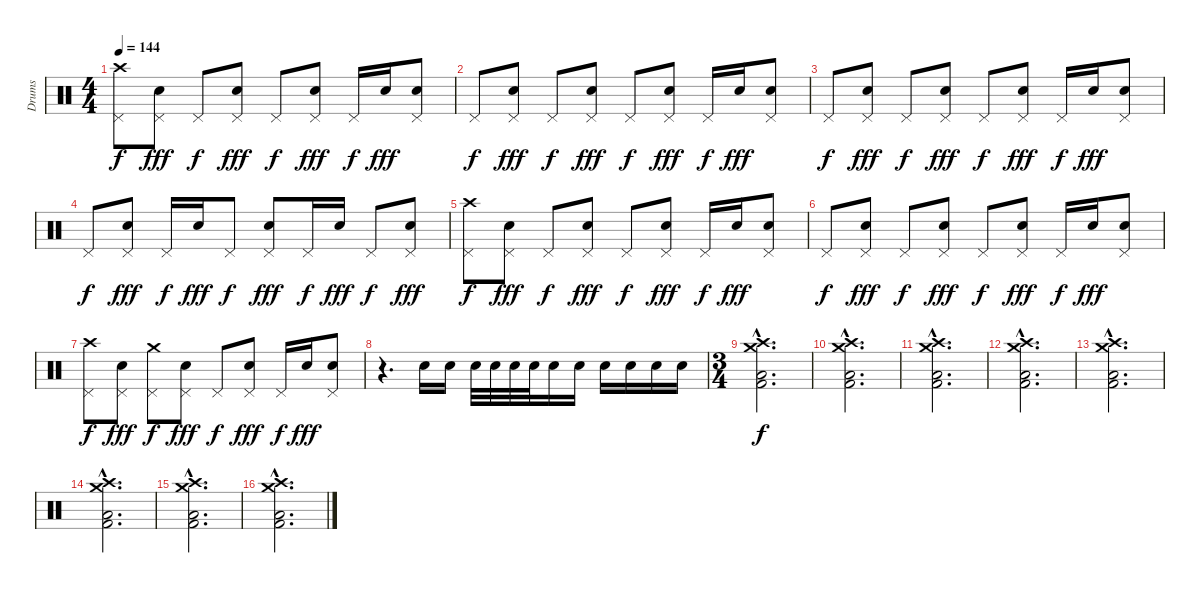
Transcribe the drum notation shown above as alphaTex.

\track ("Drums" "Drums") {instrument percussion}
\staff {score}
\articulation defaults
\ts (4 4)
\tempo 144
\clef neutral
\ks c
("Pedal Hi-Hat (hit)" "Crash high (hit)").8{dy f} ("Pedal Hi-Hat (hit)" "Electric Snare (hit)").8{dy fff} "Pedal Hi-Hat (hit)".8{dy f} ("Pedal Hi-Hat (hit)" "Electric Snare (hit)").8{dy fff} "Pedal Hi-Hat (hit)".8{dy f} ("Pedal Hi-Hat (hit)" "Electric Snare (hit)").8{dy fff} "Pedal Hi-Hat (hit)".16{dy f} "Electric Snare (hit)".16{dy fff} ("Pedal Hi-Hat (hit)" "Electric Snare (hit)").8 |
"Pedal Hi-Hat (hit)".8{dy f} ("Pedal Hi-Hat (hit)" "Electric Snare (hit)").8{dy fff} "Pedal Hi-Hat (hit)".8{dy f} ("Pedal Hi-Hat (hit)" "Electric Snare (hit)").8{dy fff} "Pedal Hi-Hat (hit)".8{dy f} ("Pedal Hi-Hat (hit)" "Electric Snare (hit)").8{dy fff} "Pedal Hi-Hat (hit)".16{dy f} "Electric Snare (hit)".16{dy fff} ("Pedal Hi-Hat (hit)" "Electric Snare (hit)").8 |
"Pedal Hi-Hat (hit)".8{dy f} ("Pedal Hi-Hat (hit)" "Electric Snare (hit)").8{dy fff} "Pedal Hi-Hat (hit)".8{dy f} ("Pedal Hi-Hat (hit)" "Electric Snare (hit)").8{dy fff} "Pedal Hi-Hat (hit)".8{dy f} ("Pedal Hi-Hat (hit)" "Electric Snare (hit)").8{dy fff} "Pedal Hi-Hat (hit)".16{dy f} "Electric Snare (hit)".16{dy fff} ("Pedal Hi-Hat (hit)" "Electric Snare (hit)").8 |
"Pedal Hi-Hat (hit)".8{dy f} ("Pedal Hi-Hat (hit)" "Electric Snare (hit)").8{dy fff} "Pedal Hi-Hat (hit)".16{dy f} "Electric Snare (hit)".16{dy fff} "Pedal Hi-Hat (hit)".8{dy f} ("Pedal Hi-Hat (hit)" "Electric Snare (hit)").8{dy fff} "Pedal Hi-Hat (hit)".16{dy f} "Electric Snare (hit)".16{dy fff} "Pedal Hi-Hat (hit)".8{dy f} ("Pedal Hi-Hat (hit)" "Electric Snare (hit)").8{dy fff} |
("Pedal Hi-Hat (hit)" "Crash high (hit)").8{dy f} ("Pedal Hi-Hat (hit)" "Electric Snare (hit)").8{dy fff} "Pedal Hi-Hat (hit)".8{dy f} ("Pedal Hi-Hat (hit)" "Electric Snare (hit)").8{dy fff} "Pedal Hi-Hat (hit)".8{dy f} ("Pedal Hi-Hat (hit)" "Electric Snare (hit)").8{dy fff} "Pedal Hi-Hat (hit)".16{dy f} "Electric Snare (hit)".16{dy fff} ("Pedal Hi-Hat (hit)" "Electric Snare (hit)").8 |
"Pedal Hi-Hat (hit)".8{dy f} ("Pedal Hi-Hat (hit)" "Electric Snare (hit)").8{dy fff} "Pedal Hi-Hat (hit)".8{dy f} ("Pedal Hi-Hat (hit)" "Electric Snare (hit)").8{dy fff} "Pedal Hi-Hat (hit)".8{dy f} ("Pedal Hi-Hat (hit)" "Electric Snare (hit)").8{dy fff} "Pedal Hi-Hat (hit)".16{dy f} "Electric Snare (hit)".16{dy fff} ("Pedal Hi-Hat (hit)" "Electric Snare (hit)").8 |
("Pedal Hi-Hat (hit)" "Crash high (hit)").8{dy f} ("Pedal Hi-Hat (hit)" "Electric Snare (hit)").8{dy fff} ("Pedal Hi-Hat (hit)" "Crash medium (hit)").8{dy f} ("Pedal Hi-Hat (hit)" "Electric Snare (hit)").8{dy fff} "Pedal Hi-Hat (hit)".8{dy f} ("Pedal Hi-Hat (hit)" "Electric Snare (hit)").8{dy fff} "Pedal Hi-Hat (hit)".16{dy f} "Electric Snare (hit)".16{dy fff} ("Pedal Hi-Hat (hit)" "Electric Snare (hit)").8 |
r.4{d} "Electric Snare (hit)".16 "Electric Snare (hit)".16 "Electric Snare (hit)".32 "Electric Snare (hit)".32 "Electric Snare (hit)".32 "Electric Snare (hit)".32 "Electric Snare (hit)".16 "Electric Snare (hit)".16 "Electric Snare (hit)".16 "Electric Snare (hit)".16 "Electric Snare (hit)".16 "Electric Snare (hit)".16 |
\ts (3 4)
("Crash high (hit)"{hac} "Crash medium (hit)"{hac} "Low Floor Tom (hit)"{hac} "Kick (hit) 2"{hac}).2{d dy f} |
("Crash high (hit)"{hac} "Crash medium (hit)"{hac} "Low Floor Tom (hit)"{hac} "Kick (hit) 2"{hac}).2{d} |
("Crash high (hit)"{hac} "Crash medium (hit)"{hac} "Low Floor Tom (hit)"{hac} "Kick (hit) 2"{hac}).2{d} |
("Crash high (hit)"{hac} "Crash medium (hit)"{hac} "Low Floor Tom (hit)"{hac} "Kick (hit) 2"{hac}).2{d} |
("Crash high (hit)"{hac} "Crash medium (hit)"{hac} "Low Floor Tom (hit)"{hac} "Kick (hit) 2"{hac}).2{d} |
("Crash high (hit)"{hac} "Crash medium (hit)"{hac} "Low Floor Tom (hit)"{hac} "Kick (hit) 2"{hac}).2{d} |
("Crash high (hit)"{hac} "Crash medium (hit)"{hac} "Low Floor Tom (hit)"{hac} "Kick (hit) 2"{hac}).2{d} |
("Crash high (hit)"{hac} "Crash medium (hit)"{hac} "Low Floor Tom (hit)"{hac} "Kick (hit) 2"{hac}).2{d}
